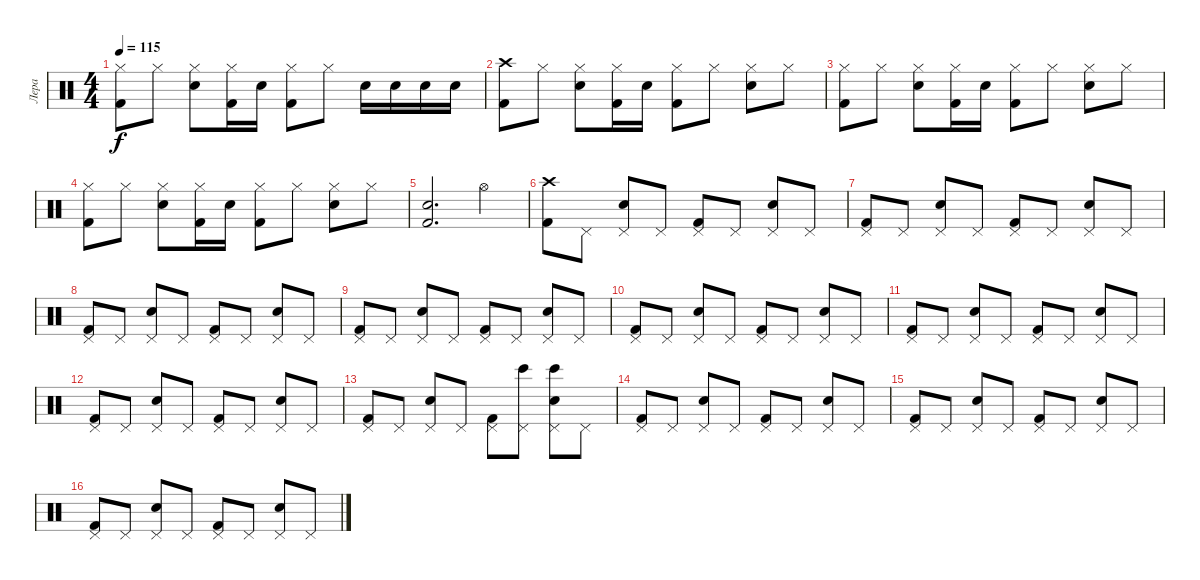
\track ("Лера" "Лера") {instrument percussion}
\staff {score}
\articulation defaults
\ts (4 4)
\tempo 115
\clef neutral
\ks c
("Hi-Hat (closed)" "Kick (hit) 2").8{dy f} "Hi-Hat (closed)".8 ("Hi-Hat (closed)" "Electric Snare (hit)").8 ("Hi-Hat (closed)" "Kick (hit) 2").16 "Electric Snare (hit)".16 ("Hi-Hat (closed)" "Kick (hit) 2").8 "Hi-Hat (closed)".8 "Electric Snare (hit)".16 "Electric Snare (hit)".16 "Electric Snare (hit)".16 "Electric Snare (hit)".16 |
("Crash high (hit)" "Kick (hit) 2").8 "Hi-Hat (closed)".8 ("Hi-Hat (closed)" "Electric Snare (hit)").8 ("Hi-Hat (closed)" "Kick (hit) 2").16 "Electric Snare (hit)".16 ("Hi-Hat (closed)" "Kick (hit) 2").8 "Hi-Hat (closed)".8 ("Hi-Hat (closed)" "Electric Snare (hit)").8 "Hi-Hat (closed)".8 |
("Hi-Hat (closed)" "Kick (hit) 2").8 "Hi-Hat (closed)".8 ("Hi-Hat (closed)" "Electric Snare (hit)").8 ("Hi-Hat (closed)" "Kick (hit) 2").16 "Electric Snare (hit)".16 ("Hi-Hat (closed)" "Kick (hit) 2").8 "Hi-Hat (closed)".8 ("Hi-Hat (closed)" "Electric Snare (hit)").8 "Hi-Hat (closed)".8 |
("Hi-Hat (closed)" "Kick (hit) 2").8 "Hi-Hat (closed)".8 ("Hi-Hat (closed)" "Electric Snare (hit)").8 ("Hi-Hat (closed)" "Kick (hit) 2").16 "Electric Snare (hit)".16 ("Hi-Hat (closed)" "Kick (hit) 2").8 "Hi-Hat (closed)".8 ("Hi-Hat (closed)" "Electric Snare (hit)").8 "Hi-Hat (closed)".8 |
("Electric Snare (hit)" "Kick (hit) 2").2{d} "Hi-Hat (open)".4 |
("Crash high (hit)" "Kick (hit) 2").8 "Pedal Hi-Hat (hit)".8 ("Pedal Hi-Hat (hit)" "Electric Snare (hit)").8 "Pedal Hi-Hat (hit)".8 ("Pedal Hi-Hat (hit)" "Kick (hit) 2").8 "Pedal Hi-Hat (hit)".8 ("Pedal Hi-Hat (hit)" "Electric Snare (hit)").8 "Pedal Hi-Hat (hit)".8 |
("Pedal Hi-Hat (hit)" "Kick (hit) 2").8 "Pedal Hi-Hat (hit)".8 ("Pedal Hi-Hat (hit)" "Electric Snare (hit)").8 "Pedal Hi-Hat (hit)".8 ("Pedal Hi-Hat (hit)" "Kick (hit) 2").8 "Pedal Hi-Hat (hit)".8 ("Pedal Hi-Hat (hit)" "Electric Snare (hit)").8 "Pedal Hi-Hat (hit)".8 |
("Pedal Hi-Hat (hit)" "Kick (hit) 2").8 "Pedal Hi-Hat (hit)".8 ("Pedal Hi-Hat (hit)" "Electric Snare (hit)").8 "Pedal Hi-Hat (hit)".8 ("Pedal Hi-Hat (hit)" "Kick (hit) 2").8 "Pedal Hi-Hat (hit)".8 ("Pedal Hi-Hat (hit)" "Electric Snare (hit)").8 "Pedal Hi-Hat (hit)".8 |
("Pedal Hi-Hat (hit)" "Kick (hit) 2").8 "Pedal Hi-Hat (hit)".8 ("Pedal Hi-Hat (hit)" "Electric Snare (hit)").8 "Pedal Hi-Hat (hit)".8 ("Pedal Hi-Hat (hit)" "Kick (hit) 2").8 "Pedal Hi-Hat (hit)".8 ("Pedal Hi-Hat (hit)" "Electric Snare (hit)").8 "Pedal Hi-Hat (hit)".8 |
("Pedal Hi-Hat (hit)" "Kick (hit) 2").8 "Pedal Hi-Hat (hit)".8 ("Pedal Hi-Hat (hit)" "Electric Snare (hit)").8 "Pedal Hi-Hat (hit)".8 ("Pedal Hi-Hat (hit)" "Kick (hit) 2").8 "Pedal Hi-Hat (hit)".8 ("Pedal Hi-Hat (hit)" "Electric Snare (hit)").8 "Pedal Hi-Hat (hit)".8 |
("Pedal Hi-Hat (hit)" "Kick (hit) 2").8 "Pedal Hi-Hat (hit)".8 ("Pedal Hi-Hat (hit)" "Electric Snare (hit)").8 "Pedal Hi-Hat (hit)".8 ("Pedal Hi-Hat (hit)" "Kick (hit) 2").8 "Pedal Hi-Hat (hit)".8 ("Pedal Hi-Hat (hit)" "Electric Snare (hit)").8 "Pedal Hi-Hat (hit)".8 |
("Pedal Hi-Hat (hit)" "Kick (hit) 2").8 "Pedal Hi-Hat (hit)".8 ("Pedal Hi-Hat (hit)" "Electric Snare (hit)").8 "Pedal Hi-Hat (hit)".8 ("Pedal Hi-Hat (hit)" "Kick (hit) 2").8 "Pedal Hi-Hat (hit)".8 ("Pedal Hi-Hat (hit)" "Electric Snare (hit)").8 "Pedal Hi-Hat (hit)".8 |
("Pedal Hi-Hat (hit)" "Kick (hit) 2").8 "Pedal Hi-Hat (hit)".8 ("Pedal Hi-Hat (hit)" "Electric Snare (hit)").8 "Pedal Hi-Hat (hit)".8 ("Pedal Hi-Hat (hit)" "Kick (hit) 2").8 ("Pedal Hi-Hat (hit)" "Bongo High (hit)").8 ("Pedal Hi-Hat (hit)" "Electric Snare (hit)" "Bongo High (hit)").8 "Pedal Hi-Hat (hit)".8 |
("Pedal Hi-Hat (hit)" "Kick (hit) 2").8 "Pedal Hi-Hat (hit)".8 ("Pedal Hi-Hat (hit)" "Electric Snare (hit)").8 "Pedal Hi-Hat (hit)".8 ("Pedal Hi-Hat (hit)" "Kick (hit) 2").8 "Pedal Hi-Hat (hit)".8 ("Pedal Hi-Hat (hit)" "Electric Snare (hit)").8 "Pedal Hi-Hat (hit)".8 |
("Pedal Hi-Hat (hit)" "Kick (hit) 2").8 "Pedal Hi-Hat (hit)".8 ("Pedal Hi-Hat (hit)" "Electric Snare (hit)").8 "Pedal Hi-Hat (hit)".8 ("Pedal Hi-Hat (hit)" "Kick (hit) 2").8 "Pedal Hi-Hat (hit)".8 ("Pedal Hi-Hat (hit)" "Electric Snare (hit)").8 "Pedal Hi-Hat (hit)".8 |
("Pedal Hi-Hat (hit)" "Kick (hit) 2").8 "Pedal Hi-Hat (hit)".8 ("Pedal Hi-Hat (hit)" "Electric Snare (hit)").8 "Pedal Hi-Hat (hit)".8 ("Pedal Hi-Hat (hit)" "Kick (hit) 2").8 "Pedal Hi-Hat (hit)".8 ("Pedal Hi-Hat (hit)" "Electric Snare (hit)").8 "Pedal Hi-Hat (hit)".8
